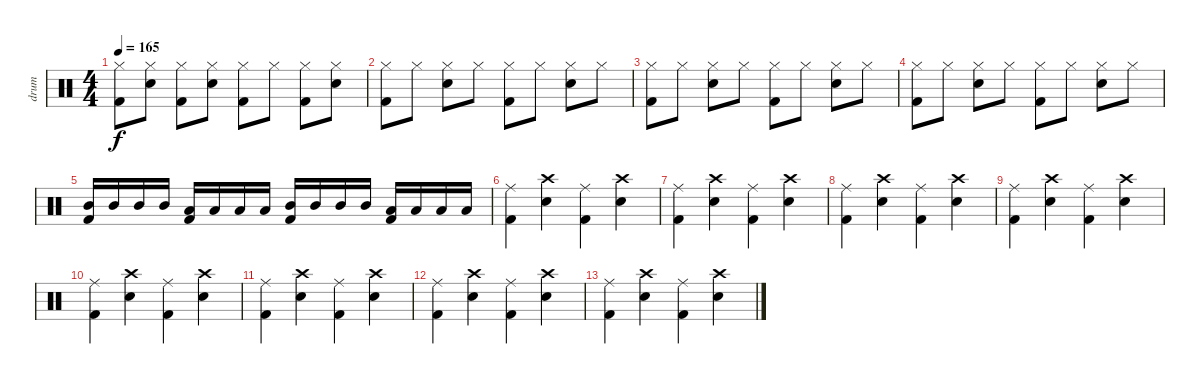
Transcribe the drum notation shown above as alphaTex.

\track ("drum" "drum") {instrument percussion}
\staff {score}
\articulation defaults
\ts (4 4)
\tempo 165
\clef neutral
\ks c
("Hi-Hat (closed)" "Kick (hit) 2").8{dy f} ("Hi-Hat (closed)" "Snare (hit) 2").8 ("Hi-Hat (closed)" "Kick (hit) 2").8 ("Hi-Hat (closed)" "Snare (hit) 2").8 ("Hi-Hat (closed)" "Kick (hit) 2").8 "Hi-Hat (closed)".8 ("Hi-Hat (closed)" "Kick (hit) 2").8 ("Hi-Hat (closed)" "Snare (hit) 2").8 |
("Hi-Hat (closed)" "Kick (hit) 2").8 "Hi-Hat (closed)".8 ("Hi-Hat (closed)" "Snare (hit) 2").8 "Hi-Hat (closed)".8 ("Hi-Hat (closed)" "Kick (hit) 2").8 "Hi-Hat (closed)".8 ("Hi-Hat (closed)" "Snare (hit) 2").8 "Hi-Hat (closed)".8 |
("Hi-Hat (closed)" "Kick (hit) 2").8 "Hi-Hat (closed)".8 ("Hi-Hat (closed)" "Snare (hit) 2").8 "Hi-Hat (closed)".8 ("Hi-Hat (closed)" "Kick (hit) 2").8 "Hi-Hat (closed)".8 ("Hi-Hat (closed)" "Snare (hit) 2").8 "Hi-Hat (closed)".8 |
("Hi-Hat (closed)" "Kick (hit) 2").8 "Hi-Hat (closed)".8 ("Hi-Hat (closed)" "Snare (hit) 2").8 "Hi-Hat (closed)".8 ("Hi-Hat (closed)" "Kick (hit) 2").8 "Hi-Hat (closed)".8 ("Hi-Hat (closed)" "Snare (hit) 2").8 "Hi-Hat (closed)".8 |
("Mid Tom (hit)" "Kick (hit) 2").16 "Mid Tom (hit)".16 "Mid Tom (hit)".16 "Mid Tom (hit)".16 ("Low Tom (hit)" "Kick (hit) 2").16 "Low Tom (hit)".16 "Low Tom (hit)".16 "Low Tom (hit)".16 ("Mid Tom (hit)" "Kick (hit) 2").16 "Mid Tom (hit)".16 "Mid Tom (hit)".16 "Mid Tom (hit)".16 ("Low Tom (hit)" "Kick (hit) 2").16 "Low Tom (hit)".16 "Low Tom (hit)".16 "Low Tom (hit)".16 |
("Ride (middle)" "Kick (hit) 2").4 ("Crash high (hit)" "Snare (hit) 2").4 ("Ride (middle)" "Kick (hit) 2").4 ("Crash high (hit)" "Snare (hit) 2").4 |
("Ride (middle)" "Kick (hit) 2").4 ("Crash high (hit)" "Snare (hit) 2").4 ("Ride (middle)" "Kick (hit) 2").4 ("Crash high (hit)" "Snare (hit) 2").4 |
("Ride (middle)" "Kick (hit) 2").4 ("Crash high (hit)" "Snare (hit) 2").4 ("Ride (middle)" "Kick (hit) 2").4 ("Crash high (hit)" "Snare (hit) 2").4 |
("Ride (middle)" "Kick (hit) 2").4 ("Crash high (hit)" "Snare (hit) 2").4 ("Ride (middle)" "Kick (hit) 2").4 ("Crash high (hit)" "Snare (hit) 2").4 |
("Ride (middle)" "Kick (hit) 2").4{volume 13} ("Crash high (hit)" "Snare (hit) 2").4{volume 12} ("Ride (middle)" "Kick (hit) 2").4{volume 11} ("Crash high (hit)" "Snare (hit) 2").4{volume 10} |
("Ride (middle)" "Kick (hit) 2").4{volume 9} ("Crash high (hit)" "Snare (hit) 2").4{volume 8} ("Ride (middle)" "Kick (hit) 2").4{volume 8} ("Crash high (hit)" "Snare (hit) 2").4{volume 7} |
("Ride (middle)" "Kick (hit) 2").4{volume 6} ("Crash high (hit)" "Snare (hit) 2").4{volume 5} ("Ride (middle)" "Kick (hit) 2").4{volume 4} ("Crash high (hit)" "Snare (hit) 2").4{volume 4} |
("Ride (middle)" "Kick (hit) 2").4{volume 3} ("Crash high (hit)" "Snare (hit) 2").4{volume 2} ("Ride (middle)" "Kick (hit) 2").4{volume 2} ("Crash high (hit)" "Snare (hit) 2").4{volume 1}
